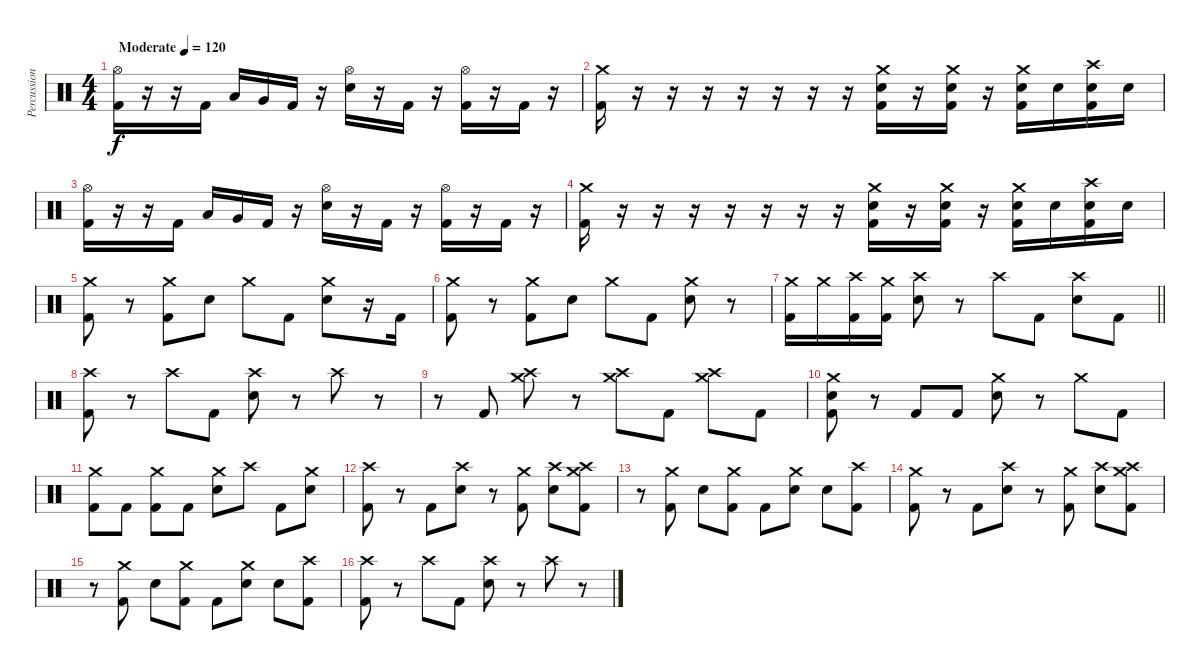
\track ("Percussion" "Percussion") {instrument percussion}
\staff {score}
\articulation defaults
\ts (4 4)
\section ("" "")
\tempo (120 "Moderate")
\clef neutral
\ks c
("Hi-Hat (open)" "Kick (hit) 2").16{dy f} r.16 r.16 "Kick (hit) 2".16 "Low Tom (hit)".16 "Very Low Tom (hit)".16 "Kick (hit) 2".16 r.16 ("Hi-Hat (open)" "Electric Snare (hit)").16 r.16 "Kick (hit) 2".16 r.16 ("Hi-Hat (open)" "Kick (hit) 2").16 r.16 "Kick (hit) 2".16 r.16 |
("Crash medium (hit)" "Kick (hit) 2").16 r.16 r.16 r.16 r.16 r.16 r.16 r.16 ("Crash medium (hit)" "Electric Snare (hit)" "Kick (hit) 2").16 r.16 ("Crash medium (hit)" "Electric Snare (hit)" "Kick (hit) 2").16 r.16 ("Crash medium (hit)" "Electric Snare (hit)" "Kick (hit) 2").16 "Electric Snare (hit)".16 ("Crash high (hit)" "Electric Snare (hit)" "Kick (hit) 2").16 "Electric Snare (hit)".16 |
("Hi-Hat (open)" "Kick (hit) 2").16 r.16 r.16 "Kick (hit) 2".16 "Low Tom (hit)".16 "Very Low Tom (hit)".16 "Kick (hit) 2".16 r.16 ("Hi-Hat (open)" "Electric Snare (hit)").16 r.16 "Kick (hit) 2".16 r.16 ("Hi-Hat (open)" "Kick (hit) 2").16 r.16 "Kick (hit) 2".16 r.16 |
("Crash medium (hit)" "Kick (hit) 2").16 r.16 r.16 r.16 r.16 r.16 r.16 r.16 ("Crash medium (hit)" "Electric Snare (hit)" "Kick (hit) 2").16 r.16 ("Crash medium (hit)" "Electric Snare (hit)" "Kick (hit) 2").16 r.16 ("Crash medium (hit)" "Electric Snare (hit)" "Kick (hit) 2").16 "Electric Snare (hit)".16 ("Crash high (hit)" "Electric Snare (hit)" "Kick (hit) 2").16 "Electric Snare (hit)".16 |
("Crash medium (hit)" "Kick (hit) 2").8 r.8 ("Crash medium (hit)" "Kick (hit) 2").8 "Electric Snare (hit)".8 "Crash medium (hit)".8 "Kick (hit) 2".8 ("Crash medium (hit)" "Electric Snare (hit)").8 r.16 "Kick (hit) 2".16 |
("Crash medium (hit)" "Kick (hit) 2").8 r.8 ("Crash medium (hit)" "Kick (hit) 2").8 "Electric Snare (hit)".8 "Crash medium (hit)".8 "Kick (hit) 2".8 ("Crash medium (hit)" "Electric Snare (hit)").8 r.8 |
\barLineRight lightlight
("Crash medium (hit)" "Kick (hit) 2").16 "Crash medium (hit)".16 ("Crash high (hit)" "Kick (hit) 2").16 ("Crash medium (hit)" "Kick (hit) 2").16 ("Crash high (hit)" "Electric Snare (hit)").8 r.8 "Crash high (hit)".8 "Kick (hit) 2".8 ("Crash high (hit)" "Electric Snare (hit)").8 "Kick (hit) 2".8 |
\section ("" "")
("Crash high (hit)" "Kick (hit) 2").8 r.8 "Crash high (hit)".8 "Kick (hit) 2".8 ("Crash high (hit)" "Electric Snare (hit)").8 r.8 "Crash high (hit)".8 r.8 |
r.8 "Kick (hit) 2".8 ("Crash high (hit)" "Crash medium (hit)").8 r.8 ("Crash high (hit)" "Crash medium (hit)").8 "Kick (hit) 2".8 ("Crash high (hit)" "Crash medium (hit)").8 "Kick (hit) 2".8 |
("Crash medium (hit)" "Electric Snare (hit)" "Kick (hit) 2").8 r.8 "Kick (hit) 2".8 "Kick (hit) 2".8 ("Crash medium (hit)" "Electric Snare (hit)").8 r.8 "Crash medium (hit)".8 "Kick (hit) 2".8 |
("Crash medium (hit)" "Kick (hit) 2").8 "Kick (hit) 2".8 ("Crash medium (hit)" "Kick (hit) 2").8 "Kick (hit) 2".8 ("Crash medium (hit)" "Electric Snare (hit)").8 "Crash high (hit)".8 "Kick (hit) 2".8 ("Crash medium (hit)" "Electric Snare (hit)").8 |
("Crash high (hit)" "Kick (hit) 2").8 r.8 "Kick (hit) 2".8 ("Crash high (hit)" "Electric Snare (hit)").8 r.8 ("Crash medium (hit)" "Kick (hit) 2").8 ("Crash high (hit)" "Electric Snare (hit)").8 ("Crash medium (hit)" "Crash high (hit)" "Kick (hit) 2").8 |
r.8 ("Crash medium (hit)" "Kick (hit) 2").8 "Electric Snare (hit)".8 ("Crash medium (hit)" "Kick (hit) 2").8 "Kick (hit) 2".8 ("Crash medium (hit)" "Electric Snare (hit)").8 "Electric Snare (hit)".8 ("Crash high (hit)" "Kick (hit) 2").8 |
("Crash medium (hit)" "Kick (hit) 2").8 r.8 "Kick (hit) 2".8 ("Crash high (hit)" "Electric Snare (hit)").8 r.8 ("Crash medium (hit)" "Kick (hit) 2").8 ("Crash high (hit)" "Electric Snare (hit)").8 ("Crash medium (hit)" "Crash high (hit)" "Kick (hit) 2").8 |
r.8 ("Crash medium (hit)" "Kick (hit) 2").8 "Electric Snare (hit)".8 ("Crash medium (hit)" "Kick (hit) 2").8 "Kick (hit) 2".8 ("Crash medium (hit)" "Electric Snare (hit)").8 "Electric Snare (hit)".8 ("Crash high (hit)" "Kick (hit) 2").8 |
("Crash high (hit)" "Kick (hit) 2").8 r.8 "Crash high (hit)".8 "Kick (hit) 2".8 ("Crash high (hit)" "Electric Snare (hit)").8 r.8 "Crash high (hit)".8 r.8
